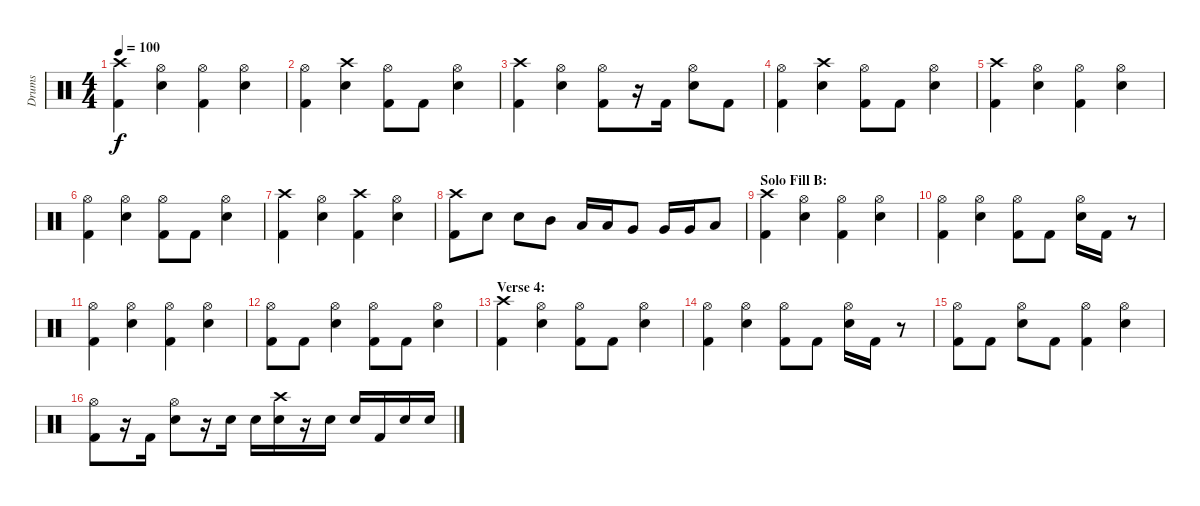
\track ("Drums" "Drums") {instrument percussion}
\staff {score}
\articulation defaults
\ts (4 4)
\tempo 100
\clef neutral
\ks c
("Crash high (hit)" "Kick (hit) 2").4{dy f} ("Hi-Hat (open)" "Electric Snare (hit)").4 ("Hi-Hat (open)" "Kick (hit) 2").4 ("Hi-Hat (open)" "Electric Snare (hit)").4 |
("Hi-Hat (open)" "Kick (hit) 2").4 ("Crash high (hit)" "Electric Snare (hit)").4 ("Hi-Hat (open)" "Kick (hit) 2").8 "Kick (hit) 2".8 ("Hi-Hat (open)" "Electric Snare (hit)").4 |
("Crash high (hit)" "Kick (hit) 2").4 ("Hi-Hat (open)" "Electric Snare (hit)").4 ("Hi-Hat (open)" "Kick (hit) 2").8 r.16 "Kick (hit) 2".16 ("Hi-Hat (open)" "Electric Snare (hit)").8 "Kick (hit) 2".8 |
("Hi-Hat (open)" "Kick (hit) 2").4 ("Crash high (hit)" "Electric Snare (hit)").4 ("Hi-Hat (open)" "Kick (hit) 2").8 "Kick (hit) 2".8 ("Hi-Hat (open)" "Electric Snare (hit)").4 |
("Crash high (hit)" "Kick (hit) 2").4 ("Hi-Hat (open)" "Electric Snare (hit)").4 ("Hi-Hat (open)" "Kick (hit) 2").4 ("Hi-Hat (open)" "Electric Snare (hit)").4 |
("Hi-Hat (open)" "Kick (hit) 2").4 ("Hi-Hat (open)" "Electric Snare (hit)").4 ("Hi-Hat (open)" "Kick (hit) 2").8 "Kick (hit) 2".8 ("Hi-Hat (open)" "Electric Snare (hit)").4 |
("Crash high (hit)" "Kick (hit) 2").4 ("Hi-Hat (open)" "Electric Snare (hit)").4 ("Crash high (hit)" "Kick (hit) 2").4 ("Hi-Hat (open)" "Electric Snare (hit)").4 |
("Crash high (hit)" "Kick (hit) 2").8 "Electric Snare (hit)".8 "Electric Snare (hit)".8 "Mid Tom (hit)".8 "Low Tom (hit)".16 "Low Tom (hit)".16 "Very Low Tom (hit)".8 "Very Low Tom (hit)".16 "Very Low Tom (hit)".16 "Low Floor Tom (hit)".8 |
\section ("" "Solo Fill B:")
("Crash high (hit)" "Kick (hit) 2").4 ("Hi-Hat (open)" "Electric Snare (hit)").4 ("Hi-Hat (open)" "Kick (hit) 2").4 ("Hi-Hat (open)" "Electric Snare (hit)").4 |
("Hi-Hat (open)" "Kick (hit) 2").4 ("Hi-Hat (open)" "Electric Snare (hit)").4 ("Hi-Hat (open)" "Kick (hit) 2").8 "Kick (hit) 2".8 ("Hi-Hat (open)" "Electric Snare (hit)").16 "Kick (hit) 2".16 r.8 |
("Hi-Hat (open)" "Kick (hit) 2").4 ("Hi-Hat (open)" "Electric Snare (hit)").4 ("Hi-Hat (open)" "Kick (hit) 2").4 ("Hi-Hat (open)" "Electric Snare (hit)").4 |
("Hi-Hat (open)" "Kick (hit) 2").8 "Kick (hit) 2".8 ("Hi-Hat (open)" "Electric Snare (hit)").4 ("Hi-Hat (open)" "Kick (hit) 2").8 "Kick (hit) 2".8 ("Hi-Hat (open)" "Electric Snare (hit)").4 |
\section ("" "Verse 4:")
("Crash high (hit)" "Kick (hit) 2").4 ("Hi-Hat (open)" "Electric Snare (hit)").4 ("Hi-Hat (open)" "Kick (hit) 2").8 "Kick (hit) 2".8 ("Hi-Hat (open)" "Electric Snare (hit)").4 |
("Hi-Hat (open)" "Kick (hit) 2").4 ("Hi-Hat (open)" "Electric Snare (hit)").4 ("Hi-Hat (open)" "Kick (hit) 2").8 "Kick (hit) 2".8 ("Hi-Hat (open)" "Electric Snare (hit)").16 "Kick (hit) 2".16 r.8 |
("Hi-Hat (open)" "Kick (hit) 2").8 "Kick (hit) 2".8 ("Hi-Hat (open)" "Electric Snare (hit)").8 "Kick (hit) 2".8 ("Hi-Hat (open)" "Kick (hit) 2").4 ("Hi-Hat (open)" "Electric Snare (hit)").4 |
("Hi-Hat (open)" "Kick (hit) 2").8 r.16 "Kick (hit) 2".16 ("Hi-Hat (open)" "Electric Snare (hit)").8 r.16 "Electric Snare (hit)".16 "Electric Snare (hit)".16 ("Crash high (hit)" "Electric Snare (hit)").16 r.16 "Electric Snare (hit)".16 "Electric Snare (hit)".16 "Kick (hit) 2".16 "Electric Snare (hit)".16 "Electric Snare (hit)".16
